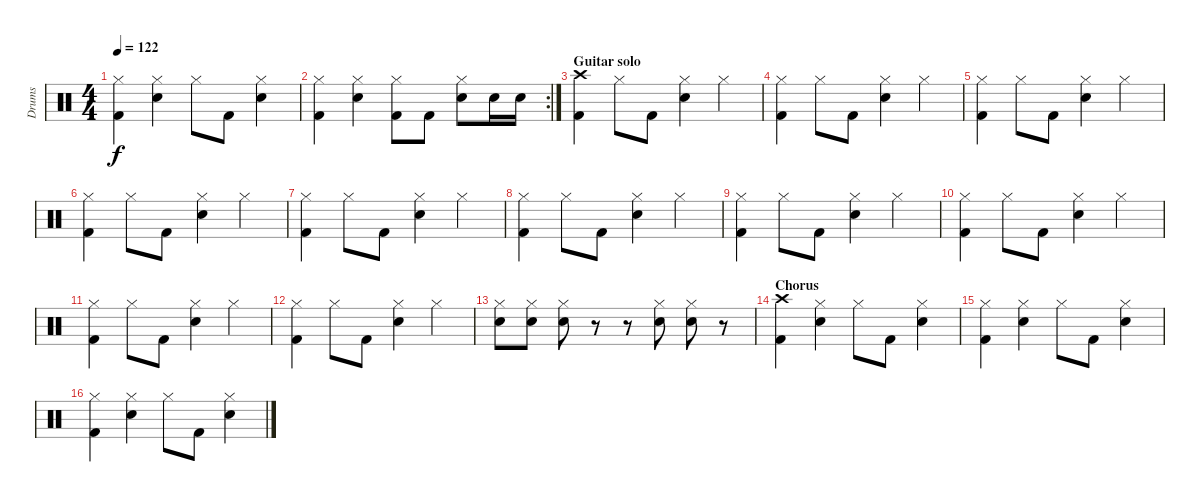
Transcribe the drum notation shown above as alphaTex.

\track ("Drums" "Drums") {instrument percussion}
\staff {score}
\articulation defaults
\ts (4 4)
\tempo 122
\clef neutral
\ks c
("Hi-Hat (closed)" "Kick (hit) 2").4{dy f} ("Hi-Hat (closed)" "Electric Snare (hit)").4 "Hi-Hat (closed)".8 "Kick (hit) 2".8 ("Hi-Hat (closed)" "Electric Snare (hit)").4 |
\rc 2
("Hi-Hat (closed)" "Kick (hit) 2").4 ("Hi-Hat (closed)" "Electric Snare (hit)").4 ("Hi-Hat (closed)" "Kick (hit) 2").8 "Kick (hit) 2".8 ("Hi-Hat (closed)" "Electric Snare (hit)").8 "Electric Snare (hit)".16 "Electric Snare (hit)".16 |
\section ("" "Guitar solo")
("Crash high (hit)" "Kick (hit) 2").4 "Hi-Hat (closed)".8 "Kick (hit) 2".8 ("Hi-Hat (closed)" "Electric Snare (hit)").4 "Hi-Hat (closed)".4 |
("Hi-Hat (closed)" "Kick (hit) 2").4 "Hi-Hat (closed)".8 "Kick (hit) 2".8 ("Hi-Hat (closed)" "Electric Snare (hit)").4 "Hi-Hat (closed)".4 |
("Hi-Hat (closed)" "Kick (hit) 2").4 "Hi-Hat (closed)".8 "Kick (hit) 2".8 ("Hi-Hat (closed)" "Electric Snare (hit)").4 "Hi-Hat (closed)".4 |
("Hi-Hat (closed)" "Kick (hit) 2").4 "Hi-Hat (closed)".8 "Kick (hit) 2".8 ("Hi-Hat (closed)" "Electric Snare (hit)").4 "Hi-Hat (closed)".4 |
("Hi-Hat (closed)" "Kick (hit) 2").4 "Hi-Hat (closed)".8 "Kick (hit) 2".8 ("Hi-Hat (closed)" "Electric Snare (hit)").4 "Hi-Hat (closed)".4 |
("Hi-Hat (closed)" "Kick (hit) 2").4 "Hi-Hat (closed)".8 "Kick (hit) 2".8 ("Hi-Hat (closed)" "Electric Snare (hit)").4 "Hi-Hat (closed)".4 |
("Hi-Hat (closed)" "Kick (hit) 2").4 "Hi-Hat (closed)".8 "Kick (hit) 2".8 ("Hi-Hat (closed)" "Electric Snare (hit)").4 "Hi-Hat (closed)".4 |
("Hi-Hat (closed)" "Kick (hit) 2").4 "Hi-Hat (closed)".8 "Kick (hit) 2".8 ("Hi-Hat (closed)" "Electric Snare (hit)").4 "Hi-Hat (closed)".4 |
("Hi-Hat (closed)" "Kick (hit) 2").4 "Hi-Hat (closed)".8 "Kick (hit) 2".8 ("Hi-Hat (closed)" "Electric Snare (hit)").4 "Hi-Hat (closed)".4 |
("Hi-Hat (closed)" "Kick (hit) 2").4 "Hi-Hat (closed)".8 "Kick (hit) 2".8 ("Hi-Hat (closed)" "Electric Snare (hit)").4 "Hi-Hat (closed)".4 |
("Hi-Hat (closed)" "Electric Snare (hit)").8 ("Hi-Hat (closed)" "Electric Snare (hit)").8 ("Hi-Hat (closed)" "Electric Snare (hit)").8 r.8 r.8 ("Hi-Hat (closed)" "Electric Snare (hit)").8 ("Hi-Hat (closed)" "Electric Snare (hit)").8 r.8 |
\section ("" "Chorus")
("Crash high (hit)" "Kick (hit) 2").4 ("Hi-Hat (closed)" "Electric Snare (hit)").4 "Hi-Hat (closed)".8 "Kick (hit) 2".8 ("Hi-Hat (closed)" "Electric Snare (hit)").4 |
("Hi-Hat (closed)" "Kick (hit) 2").4 ("Hi-Hat (closed)" "Electric Snare (hit)").4 "Hi-Hat (closed)".8 "Kick (hit) 2".8 ("Hi-Hat (closed)" "Electric Snare (hit)").4 |
("Hi-Hat (closed)" "Kick (hit) 2").4 ("Hi-Hat (closed)" "Electric Snare (hit)").4 "Hi-Hat (closed)".8 "Kick (hit) 2".8 ("Hi-Hat (closed)" "Electric Snare (hit)").4
